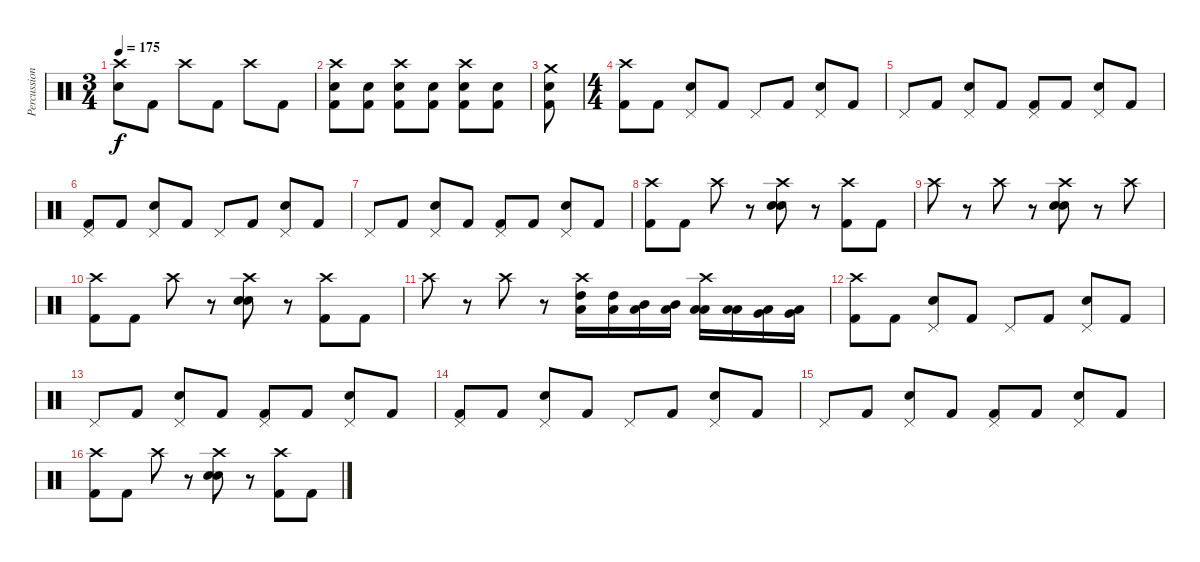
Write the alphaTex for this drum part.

\track ("Percussion" "Percussion") {instrument percussion}
\staff {score}
\articulation defaults
\ts (3 4)
\tempo 175
\clef neutral
\ks c
("Crash high (hit)" "Electric Snare (hit)").8{dy f} "Kick (hit) 2".8 "Crash high (hit)".8 "Kick (hit) 2".8 "Crash high (hit)".8 "Kick (hit) 2".8 |
("Crash high (hit)" "Electric Snare (hit)" "Kick (hit) 2").8 ("Electric Snare (hit)" "Kick (hit) 2").8 ("Crash high (hit)" "Electric Snare (hit)" "Kick (hit) 2").8 ("Electric Snare (hit)" "Kick (hit) 2").8 ("Crash high (hit)" "Electric Snare (hit)" "Kick (hit) 2").8 ("Electric Snare (hit)" "Kick (hit) 2").8 |
("Crash medium (hit)" "Electric Snare (hit)" "Kick (hit) 2").8 |
\ts (4 4)
("Crash high (hit)" "Kick (hit) 2").8 "Kick (hit) 2".8 ("Pedal Hi-Hat (hit)" "Electric Snare (hit)").8 "Kick (hit) 2".8 "Pedal Hi-Hat (hit)".8 "Kick (hit) 2".8 ("Pedal Hi-Hat (hit)" "Electric Snare (hit)").8 "Kick (hit) 2".8 |
"Pedal Hi-Hat (hit)".8 "Kick (hit) 2".8 ("Pedal Hi-Hat (hit)" "Electric Snare (hit)").8 "Kick (hit) 2".8 ("Pedal Hi-Hat (hit)" "Kick (hit) 2").8 "Kick (hit) 2".8 ("Pedal Hi-Hat (hit)" "Electric Snare (hit)").8 "Kick (hit) 2".8 |
("Pedal Hi-Hat (hit)" "Kick (hit) 2").8 "Kick (hit) 2".8 ("Pedal Hi-Hat (hit)" "Electric Snare (hit)").8 "Kick (hit) 2".8 "Pedal Hi-Hat (hit)".8 "Kick (hit) 2".8 ("Pedal Hi-Hat (hit)" "Electric Snare (hit)").8 "Kick (hit) 2".8 |
"Pedal Hi-Hat (hit)".8 "Kick (hit) 2".8 ("Pedal Hi-Hat (hit)" "Electric Snare (hit)").8 "Kick (hit) 2".8 ("Pedal Hi-Hat (hit)" "Kick (hit) 2").8 "Kick (hit) 2".8 ("Pedal Hi-Hat (hit)" "Electric Snare (hit)").8 "Kick (hit) 2".8 |
("Crash high (hit)" "Kick (hit) 2").8 "Kick (hit) 2".8 "Crash high (hit)".8 r.8 ("Crash high (hit)" "Electric Snare (hit)" "Electric Snare (hit)").8 r.8 ("Crash high (hit)" "Kick (hit) 2").8 "Kick (hit) 2".8 |
"Crash high (hit)".8 r.8 "Crash high (hit)".8 r.8 ("Crash high (hit)" "Electric Snare (hit)" "Electric Snare (hit)").8 r.8 "Crash high (hit)".8 |
("Crash high (hit)" "Kick (hit) 2").8 "Kick (hit) 2".8 "Crash high (hit)".8 r.8 ("Crash high (hit)" "Electric Snare (hit)" "Electric Snare (hit)").8 r.8 ("Crash high (hit)" "Kick (hit) 2").8 "Kick (hit) 2".8 |
"Crash high (hit)".8 r.8 "Crash high (hit)".8 r.8 ("Crash high (hit)" "Low Floor Tom (hit)" "High Tom (hit)").16 ("Low Floor Tom (hit)" "High Tom (hit)").16 ("Low Floor Tom (hit)" "Mid Tom (hit)").16 ("Low Floor Tom (hit)" "Mid Tom (hit)").16 ("Crash high (hit)" "Low Floor Tom (hit)" "Low Tom (hit)").16 ("Low Floor Tom (hit)" "Low Tom (hit)").16 ("Low Floor Tom (hit)" "Very Low Tom (hit)").16 ("Low Floor Tom (hit)" "Very Low Tom (hit)").16 |
("Crash high (hit)" "Kick (hit) 2").8 "Kick (hit) 2".8 ("Pedal Hi-Hat (hit)" "Electric Snare (hit)").8 "Kick (hit) 2".8 "Pedal Hi-Hat (hit)".8 "Kick (hit) 2".8 ("Pedal Hi-Hat (hit)" "Electric Snare (hit)").8 "Kick (hit) 2".8 |
"Pedal Hi-Hat (hit)".8 "Kick (hit) 2".8 ("Pedal Hi-Hat (hit)" "Electric Snare (hit)").8 "Kick (hit) 2".8 ("Pedal Hi-Hat (hit)" "Kick (hit) 2").8 "Kick (hit) 2".8 ("Pedal Hi-Hat (hit)" "Electric Snare (hit)").8 "Kick (hit) 2".8 |
("Pedal Hi-Hat (hit)" "Kick (hit) 2").8 "Kick (hit) 2".8 ("Pedal Hi-Hat (hit)" "Electric Snare (hit)").8 "Kick (hit) 2".8 "Pedal Hi-Hat (hit)".8 "Kick (hit) 2".8 ("Pedal Hi-Hat (hit)" "Electric Snare (hit)").8 "Kick (hit) 2".8 |
"Pedal Hi-Hat (hit)".8 "Kick (hit) 2".8 ("Pedal Hi-Hat (hit)" "Electric Snare (hit)").8 "Kick (hit) 2".8 ("Pedal Hi-Hat (hit)" "Kick (hit) 2").8 "Kick (hit) 2".8 ("Pedal Hi-Hat (hit)" "Electric Snare (hit)").8 "Kick (hit) 2".8 |
("Crash high (hit)" "Kick (hit) 2").8 "Kick (hit) 2".8 "Crash high (hit)".8 r.8 ("Crash high (hit)" "Electric Snare (hit)" "Electric Snare (hit)").8 r.8 ("Crash high (hit)" "Kick (hit) 2").8 "Kick (hit) 2".8
